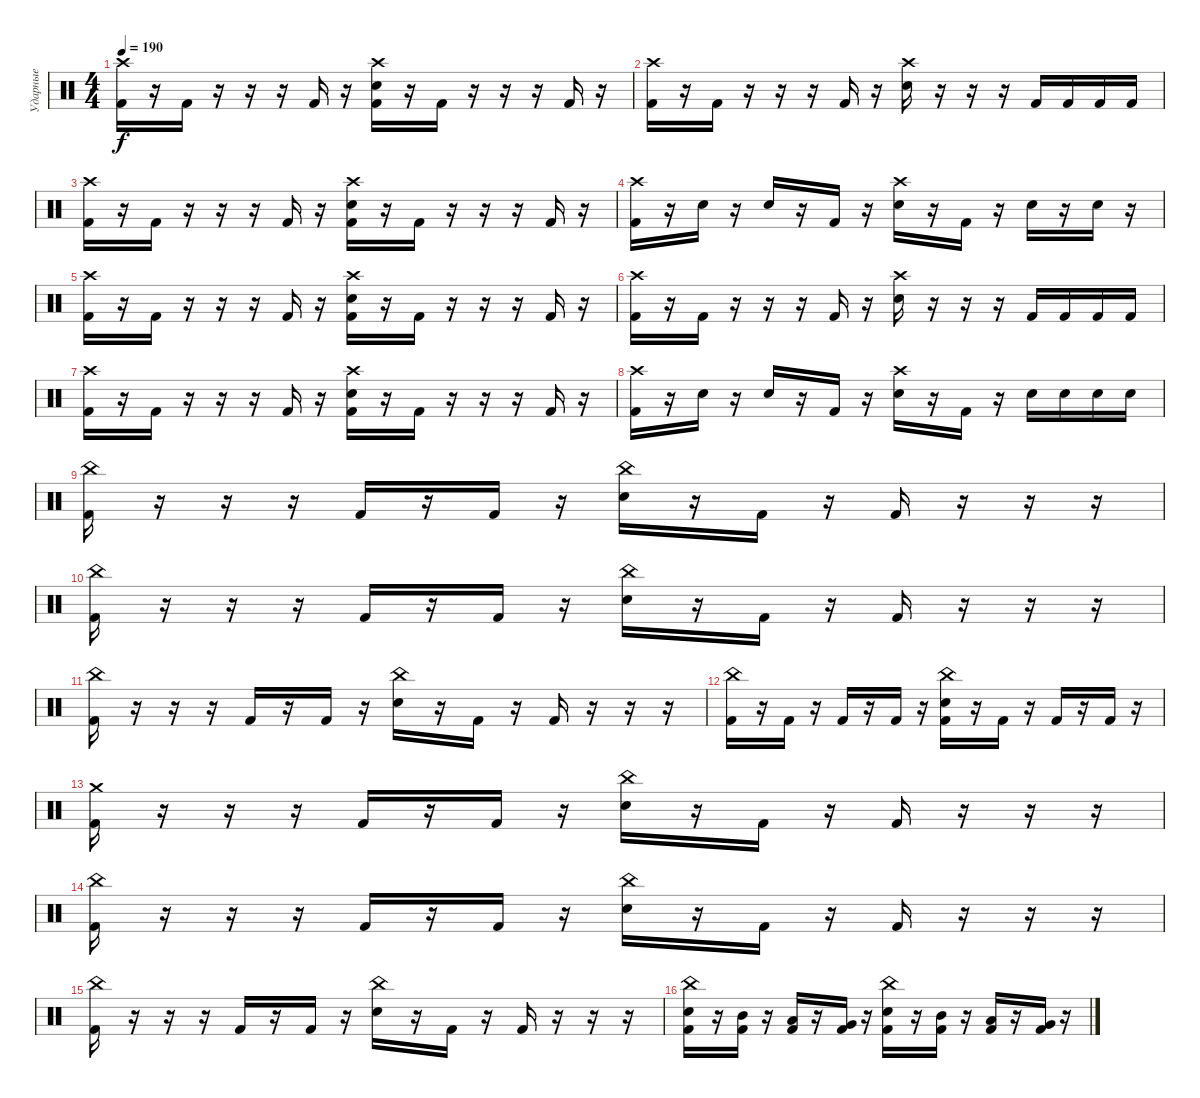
\track ("Ударные" "Ударные") {instrument percussion}
\staff {score}
\articulation defaults
\ts (4 4)
\tempo 190
\clef neutral
\ks c
("Crash high (hit)" "Kick (hit) 2").16{dy f} r.16 "Kick (hit) 2".16 r.16 r.16 r.16 "Kick (hit) 2".16 r.16 ("Snare (hit) 2" "Kick (hit) 2" "Crash high (hit)").16 r.16 "Kick (hit) 2".16 r.16 r.16 r.16 "Kick (hit) 2".16 r.16 |
("Crash high (hit)" "Kick (hit) 2").16 r.16 "Kick (hit) 2".16 r.16 r.16 r.16 "Kick (hit) 2".16 r.16 ("Snare (hit) 2" "Crash high (hit)").16 r.16 r.16 r.16 "Kick (hit) 2".16 "Kick (hit) 2".16 "Kick (hit) 2".16 "Kick (hit) 2".16 |
("Crash high (hit)" "Kick (hit) 2").16 r.16 "Kick (hit) 2".16 r.16 r.16 r.16 "Kick (hit) 2".16 r.16 ("Snare (hit) 2" "Kick (hit) 2" "Crash high (hit)").16 r.16 "Kick (hit) 2".16 r.16 r.16 r.16 "Kick (hit) 2".16 r.16 |
("Crash high (hit)" "Kick (hit) 2").16 r.16 "Snare (hit) 2".16 r.16 "Snare (hit) 2".16 r.16 "Kick (hit) 2".16 r.16 ("Snare (hit) 2" "Crash high (hit)").16 r.16 "Kick (hit) 2".16 r.16 "Snare (hit) 2".16 r.16 "Snare (hit) 2".16 r.16 |
("Crash high (hit)" "Kick (hit) 2").16 r.16 "Kick (hit) 2".16 r.16 r.16 r.16 "Kick (hit) 2".16 r.16 ("Snare (hit) 2" "Kick (hit) 2" "Crash high (hit)").16 r.16 "Kick (hit) 2".16 r.16 r.16 r.16 "Kick (hit) 2".16 r.16 |
("Crash high (hit)" "Kick (hit) 2").16 r.16 "Kick (hit) 2".16 r.16 r.16 r.16 "Kick (hit) 2".16 r.16 ("Snare (hit) 2" "Crash high (hit)").16 r.16 r.16 r.16 "Kick (hit) 2".16 "Kick (hit) 2".16 "Kick (hit) 2".16 "Kick (hit) 2".16 |
("Crash high (hit)" "Kick (hit) 2").16 r.16 "Kick (hit) 2".16 r.16 r.16 r.16 "Kick (hit) 2".16 r.16 ("Snare (hit) 2" "Kick (hit) 2" "Crash high (hit)").16 r.16 "Kick (hit) 2".16 r.16 r.16 r.16 "Kick (hit) 2".16 r.16 |
("Crash high (hit)" "Kick (hit) 2").16 r.16 "Snare (hit) 2".16 r.16 "Snare (hit) 2".16 r.16 "Kick (hit) 2".16 r.16 ("Snare (hit) 2" "Crash high (hit)").16 r.16 "Kick (hit) 2".16 r.16 "Snare (hit) 2".16 "Snare (hit) 2".16 "Snare (hit) 2".16 "Snare (hit) 2".16 |
("China (hit)" "Kick (hit) 2").16 r.16 r.16 r.16 "Kick (hit) 2".16 r.16 "Kick (hit) 2".16 r.16 ("China (hit)" "Snare (hit) 2").16 r.16 "Kick (hit) 2".16 r.16 "Kick (hit) 2".16 r.16 r.16 r.16 |
("China (hit)" "Kick (hit) 2").16 r.16 r.16 r.16 "Kick (hit) 2".16 r.16 "Kick (hit) 2".16 r.16 ("China (hit)" "Snare (hit) 2").16 r.16 "Kick (hit) 2".16 r.16 "Kick (hit) 2".16 r.16 r.16 r.16 |
("China (hit)" "Kick (hit) 2").16 r.16 r.16 r.16 "Kick (hit) 2".16 r.16 "Kick (hit) 2".16 r.16 ("China (hit)" "Snare (hit) 2").16 r.16 "Kick (hit) 2".16 r.16 "Kick (hit) 2".16 r.16 r.16 r.16 |
("China (hit)" "Kick (hit) 2").16 r.16 "Kick (hit) 2".16 r.16 "Kick (hit) 2".16 r.16 "Kick (hit) 2".16 r.16 ("Snare (hit) 2" "China (hit)" "Kick (hit) 2").16 r.16 "Kick (hit) 2".16 r.16 "Kick (hit) 2".16 r.16 "Kick (hit) 2".16 r.16 |
("Crash medium (hit)" "Kick (hit) 2").16 r.16 r.16 r.16 "Kick (hit) 2".16 r.16 "Kick (hit) 2".16 r.16 ("China (hit)" "Snare (hit) 2").16 r.16 "Kick (hit) 2".16 r.16 "Kick (hit) 2".16 r.16 r.16 r.16 |
("China (hit)" "Kick (hit) 2").16 r.16 r.16 r.16 "Kick (hit) 2".16 r.16 "Kick (hit) 2".16 r.16 ("China (hit)" "Snare (hit) 2").16 r.16 "Kick (hit) 2".16 r.16 "Kick (hit) 2".16 r.16 r.16 r.16 |
("China (hit)" "Kick (hit) 2").16 r.16 r.16 r.16 "Kick (hit) 2".16 r.16 "Kick (hit) 2".16 r.16 ("China (hit)" "Snare (hit) 2").16 r.16 "Kick (hit) 2".16 r.16 "Kick (hit) 2".16 r.16 r.16 r.16 |
("Snare (hit) 2" "China (hit)" "Kick (hit) 2").16 r.16 ("Mid Tom (hit)" "Kick (hit) 2").16 r.16 ("Low Tom (hit)" "Kick (hit) 2").16 r.16 ("Very Low Tom (hit)" "Kick (hit) 2").16 r.16 ("Snare (hit) 2" "China (hit)" "Kick (hit) 2").16 r.16 ("Mid Tom (hit)" "Kick (hit) 2").16 r.16 ("Low Tom (hit)" "Kick (hit) 2").16 r.16 ("Very Low Tom (hit)" "Kick (hit) 2").16 r.16
